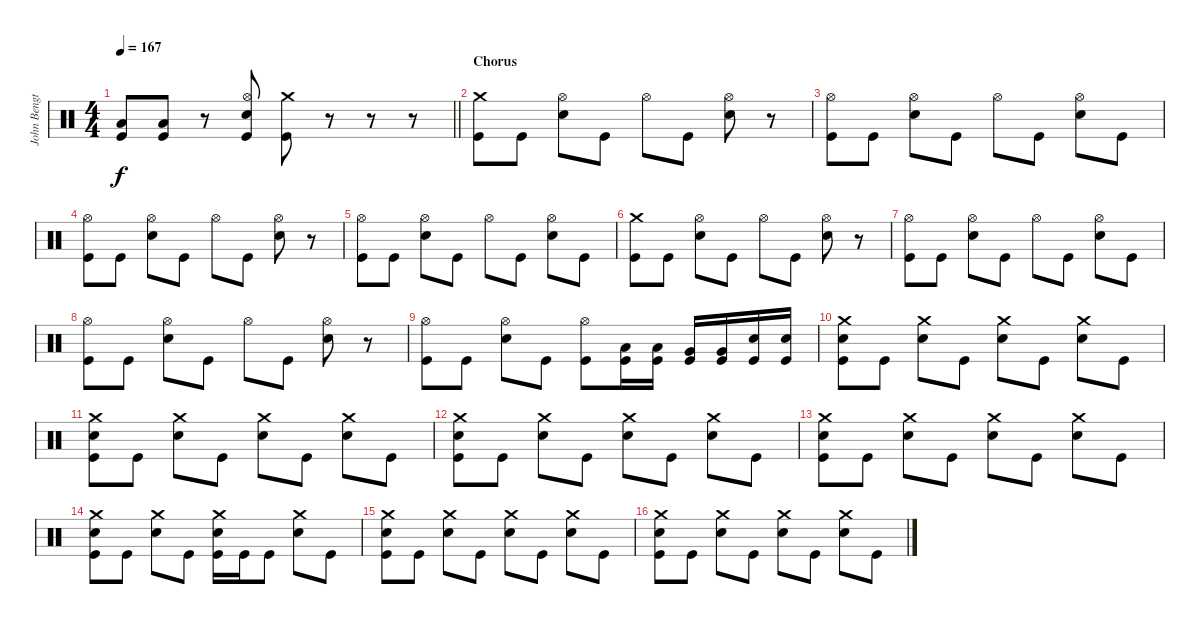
\track ("John Bengtsson" "John Bengt") {instrument percussion}
\staff {score}
\articulation defaults
\ts (4 4)
\tempo 167
\clef neutral
\barLineRight lightlight
\ks c
("Low Tom (hit)" "Kick (hit)").8{dy f} ("Low Tom (hit)" "Kick (hit)").8 r.8 ("Hi-Hat (open)" "Snare (hit) 2" "Kick (hit)").8 ("Crash medium (hit)" "Kick (hit)").8 r.8 r.8 r.8 |
\section ("" "Chorus")
("Crash medium (hit)" "Kick (hit)").8 "Kick (hit)".8 ("Hi-Hat (open)" "Snare (hit) 2").8 "Kick (hit)".8 "Hi-Hat (open)".8 "Kick (hit)".8 ("Hi-Hat (open)" "Snare (hit) 2").8 r.8 |
("Hi-Hat (open)" "Kick (hit)").8 "Kick (hit)".8 ("Hi-Hat (open)" "Snare (hit) 2").8 "Kick (hit)".8 "Hi-Hat (open)".8 "Kick (hit)".8 ("Hi-Hat (open)" "Snare (hit) 2").8 "Kick (hit)".8 |
("Hi-Hat (open)" "Kick (hit)").8 "Kick (hit)".8 ("Hi-Hat (open)" "Snare (hit) 2").8 "Kick (hit)".8 "Hi-Hat (open)".8 "Kick (hit)".8 ("Hi-Hat (open)" "Snare (hit) 2").8 r.8 |
("Hi-Hat (open)" "Kick (hit)").8 "Kick (hit)".8 ("Hi-Hat (open)" "Snare (hit) 2").8 "Kick (hit)".8 "Hi-Hat (open)".8 "Kick (hit)".8 ("Hi-Hat (open)" "Snare (hit) 2").8 "Kick (hit)".8 |
("Crash medium (hit)" "Kick (hit)").8 "Kick (hit)".8 ("Hi-Hat (open)" "Snare (hit) 2").8 "Kick (hit)".8 "Hi-Hat (open)".8 "Kick (hit)".8 ("Hi-Hat (open)" "Snare (hit) 2").8 r.8 |
("Hi-Hat (open)" "Kick (hit)").8 "Kick (hit)".8 ("Hi-Hat (open)" "Snare (hit) 2").8 "Kick (hit)".8 "Hi-Hat (open)".8 "Kick (hit)".8 ("Hi-Hat (open)" "Snare (hit) 2").8 "Kick (hit)".8 |
("Hi-Hat (open)" "Kick (hit)").8 "Kick (hit)".8 ("Hi-Hat (open)" "Snare (hit) 2").8 "Kick (hit)".8 "Hi-Hat (open)".8 "Kick (hit)".8 ("Hi-Hat (open)" "Snare (hit) 2").8 r.8 |
("Hi-Hat (open)" "Kick (hit)").8 "Kick (hit)".8 ("Hi-Hat (open)" "Snare (hit) 2").8 "Kick (hit)".8 ("Hi-Hat (open)" "Kick (hit)").8 ("Low Tom (hit)" "Kick (hit)").16 ("Low Tom (hit)" "Kick (hit)").16 ("Very Low Tom (hit)" "Kick (hit)").16 ("Very Low Tom (hit)" "Kick (hit)").16 ("Snare (hit) 2" "Kick (hit)").16 ("Snare (hit) 2" "Kick (hit)").16 |
("Crash medium (hit)" "Snare (hit) 2" "Kick (hit)").8 "Kick (hit)".8 ("Crash medium (hit)" "Snare (hit) 2").8 "Kick (hit)".8 ("Crash medium (hit)" "Snare (hit) 2").8 "Kick (hit)".8 ("Crash medium (hit)" "Snare (hit) 2").8 "Kick (hit)".8 |
("Crash medium (hit)" "Snare (hit) 2" "Kick (hit)").8 "Kick (hit)".8 ("Crash medium (hit)" "Snare (hit) 2").8 "Kick (hit)".8 ("Crash medium (hit)" "Snare (hit) 2").8 "Kick (hit)".8 ("Crash medium (hit)" "Snare (hit) 2").8 "Kick (hit)".8 |
("Crash medium (hit)" "Snare (hit) 2" "Kick (hit)").8 "Kick (hit)".8 ("Crash medium (hit)" "Snare (hit) 2").8 "Kick (hit)".8 ("Crash medium (hit)" "Snare (hit) 2").8 "Kick (hit)".8 ("Crash medium (hit)" "Snare (hit) 2").8 "Kick (hit)".8 |
("Crash medium (hit)" "Snare (hit) 2" "Kick (hit)").8 "Kick (hit)".8 ("Crash medium (hit)" "Snare (hit) 2").8 "Kick (hit)".8 ("Crash medium (hit)" "Snare (hit) 2").8 "Kick (hit)".8 ("Crash medium (hit)" "Snare (hit) 2").8 "Kick (hit)".8 |
("Crash medium (hit)" "Snare (hit) 2" "Kick (hit)").8 "Kick (hit)".8 ("Crash medium (hit)" "Snare (hit) 2").8 "Kick (hit)".8 ("Crash medium (hit)" "Snare (hit) 2" "Kick (hit)").16 "Kick (hit)".16 "Kick (hit)".8 ("Crash medium (hit)" "Snare (hit) 2").8 "Kick (hit)".8 |
("Crash medium (hit)" "Snare (hit) 2" "Kick (hit)").8 "Kick (hit)".8 ("Crash medium (hit)" "Snare (hit) 2").8 "Kick (hit)".8 ("Crash medium (hit)" "Snare (hit) 2").8 "Kick (hit)".8 ("Crash medium (hit)" "Snare (hit) 2").8 "Kick (hit)".8 |
("Crash medium (hit)" "Snare (hit) 2" "Kick (hit)").8 "Kick (hit)".8 ("Crash medium (hit)" "Snare (hit) 2").8 "Kick (hit)".8 ("Crash medium (hit)" "Snare (hit) 2").8 "Kick (hit)".8 ("Crash medium (hit)" "Snare (hit) 2").8 "Kick (hit)".8
